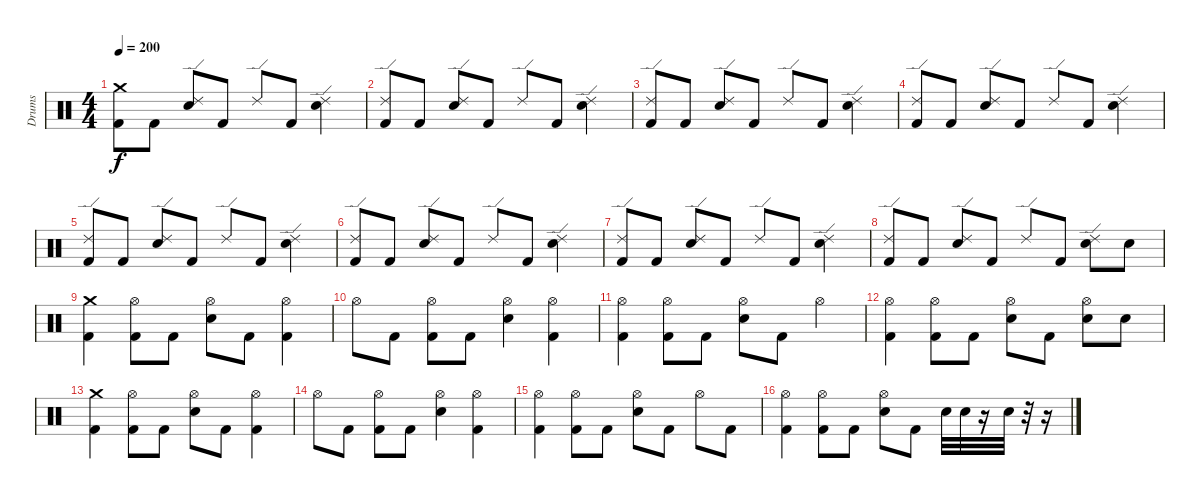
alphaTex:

\track ("Drums" "Drums") {instrument percussion}
\staff {score}
\articulation defaults
\ts (4 4)
\tempo 200
\clef neutral
\ks c
("Kick (hit) 2" "Crash medium (hit)").8{dy f} "Kick (hit) 2".8 ("Electric Snare (hit)" "Ride (edge) 2").8 "Kick (hit) 2".8 "Ride (edge) 2".8 "Kick (hit) 2".8 ("Electric Snare (hit)" "Ride (edge) 2").4 |
("Kick (hit) 2" "Ride (edge) 2").8 "Kick (hit) 2".8 ("Electric Snare (hit)" "Ride (edge) 2").8 "Kick (hit) 2".8 "Ride (edge) 2".8 "Kick (hit) 2".8 ("Electric Snare (hit)" "Ride (edge) 2").4 |
("Kick (hit) 2" "Ride (edge) 2").8 "Kick (hit) 2".8 ("Electric Snare (hit)" "Ride (edge) 2").8 "Kick (hit) 2".8 "Ride (edge) 2".8 "Kick (hit) 2".8 ("Electric Snare (hit)" "Ride (edge) 2").4 |
("Kick (hit) 2" "Ride (edge) 2").8 "Kick (hit) 2".8 ("Electric Snare (hit)" "Ride (edge) 2").8 "Kick (hit) 2".8 "Ride (edge) 2".8 "Kick (hit) 2".8 ("Electric Snare (hit)" "Ride (edge) 2").4 |
("Kick (hit) 2" "Ride (edge) 2").8 "Kick (hit) 2".8 ("Electric Snare (hit)" "Ride (edge) 2").8 "Kick (hit) 2".8 "Ride (edge) 2".8 "Kick (hit) 2".8 ("Electric Snare (hit)" "Ride (edge) 2").4 |
("Kick (hit) 2" "Ride (edge) 2").8 "Kick (hit) 2".8 ("Electric Snare (hit)" "Ride (edge) 2").8 "Kick (hit) 2".8 "Ride (edge) 2".8 "Kick (hit) 2".8 ("Electric Snare (hit)" "Ride (edge) 2").4 |
("Kick (hit) 2" "Ride (edge) 2").8 "Kick (hit) 2".8 ("Electric Snare (hit)" "Ride (edge) 2").8 "Kick (hit) 2".8 "Ride (edge) 2".8 "Kick (hit) 2".8 ("Electric Snare (hit)" "Ride (edge) 2").4 |
("Kick (hit) 2" "Ride (edge) 2").8 "Kick (hit) 2".8 ("Electric Snare (hit)" "Ride (edge) 2").8 "Kick (hit) 2".8 "Ride (edge) 2".8 "Kick (hit) 2".8 ("Electric Snare (hit)" "Ride (edge) 2").8 "Electric Snare (hit)".8 |
("Crash medium (hit)" "Kick (hit) 2").4 ("Hi-Hat (open)" "Kick (hit) 2").8 "Kick (hit) 2".8 ("Hi-Hat (open)" "Electric Snare (hit)").8 "Kick (hit) 2".8 ("Hi-Hat (open)" "Kick (hit) 2").4 |
"Hi-Hat (open)".8 "Kick (hit) 2".8 ("Hi-Hat (open)" "Kick (hit) 2").8 "Kick (hit) 2".8 ("Hi-Hat (open)" "Electric Snare (hit)").4 ("Hi-Hat (open)" "Kick (hit) 2").4 |
("Hi-Hat (open)" "Kick (hit) 2").4 ("Hi-Hat (open)" "Kick (hit) 2").8 "Kick (hit) 2".8 ("Hi-Hat (open)" "Electric Snare (hit)").8 "Kick (hit) 2".8 "Hi-Hat (open)".4 |
("Hi-Hat (open)" "Kick (hit) 2").4 ("Hi-Hat (open)" "Kick (hit) 2").8 "Kick (hit) 2".8 ("Hi-Hat (open)" "Electric Snare (hit)").8 "Kick (hit) 2".8 ("Hi-Hat (open)" "Electric Snare (hit)").8 "Electric Snare (hit)".8 |
("Crash medium (hit)" "Kick (hit) 2").4 ("Hi-Hat (open)" "Kick (hit) 2").8 "Kick (hit) 2".8 ("Hi-Hat (open)" "Electric Snare (hit)").8 "Kick (hit) 2".8 ("Hi-Hat (open)" "Kick (hit) 2").4 |
"Hi-Hat (open)".8 "Kick (hit) 2".8 ("Hi-Hat (open)" "Kick (hit) 2").8 "Kick (hit) 2".8 ("Hi-Hat (open)" "Electric Snare (hit)").4 ("Hi-Hat (open)" "Kick (hit) 2").4 |
("Hi-Hat (open)" "Kick (hit) 2").4 ("Hi-Hat (open)" "Kick (hit) 2").8 "Kick (hit) 2".8 ("Hi-Hat (open)" "Electric Snare (hit)").8 "Kick (hit) 2".8 "Hi-Hat (open)".8 "Kick (hit) 2".8 |
("Kick (hit) 2" "Hi-Hat (open)").4 ("Hi-Hat (open)" "Kick (hit) 2").8 "Kick (hit) 2".8 ("Electric Snare (hit)" "Hi-Hat (open)").8 "Kick (hit) 2".8 "Electric Snare (hit)".32 "Electric Snare (hit)".32 r.16 "Electric Snare (hit)".32 r.32 r.16
